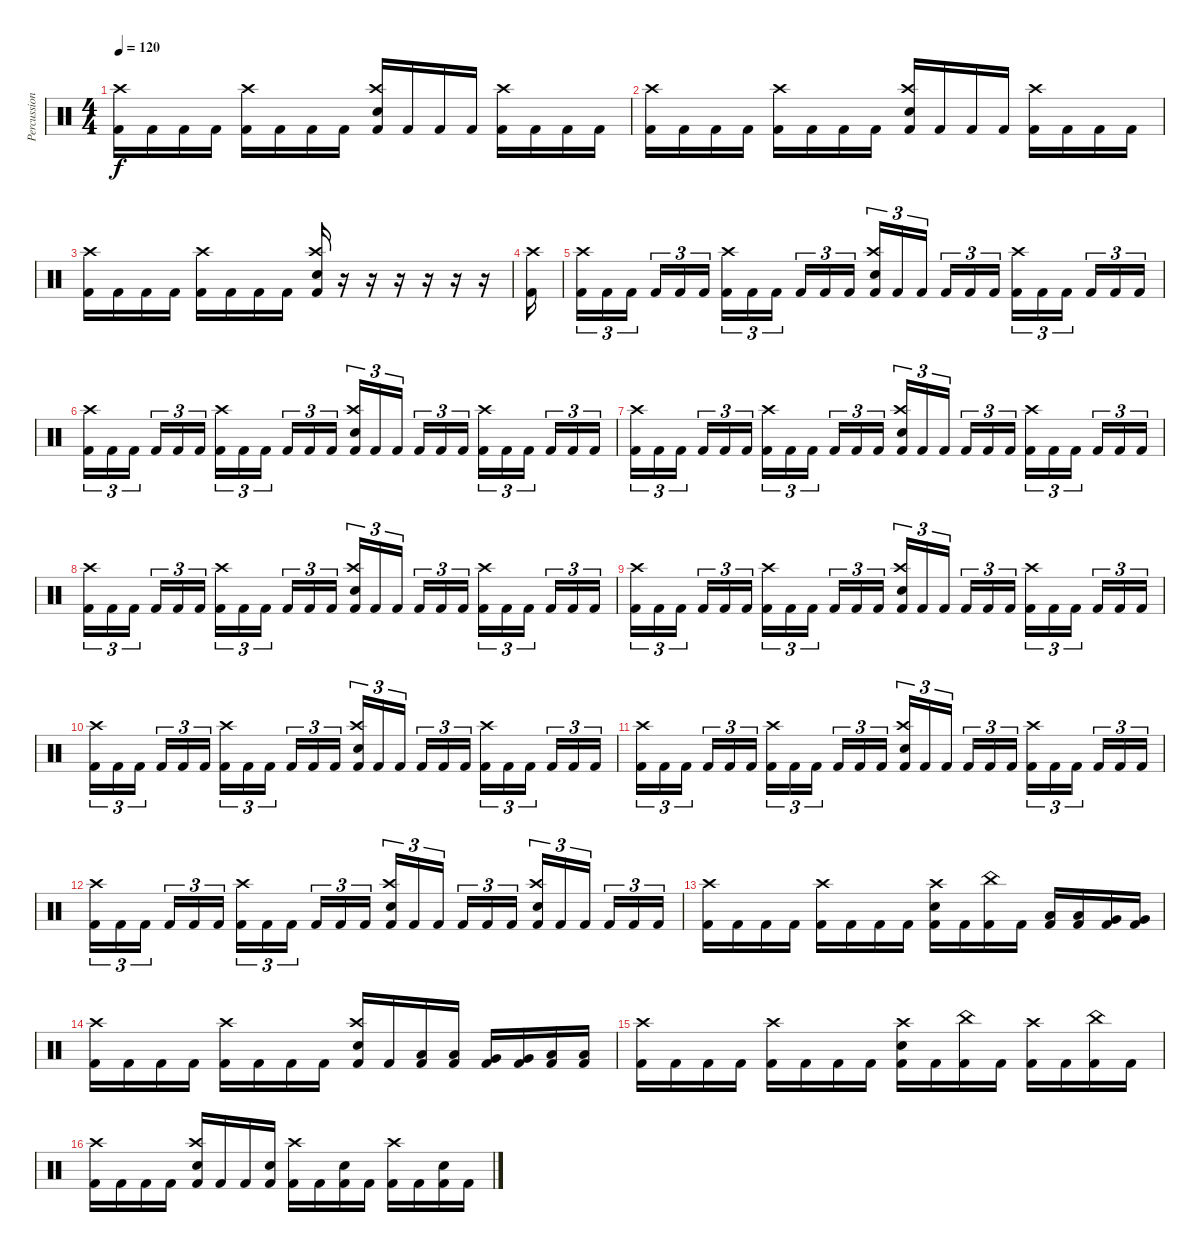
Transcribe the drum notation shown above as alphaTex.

\track ("Percussion" "Percussion") {instrument percussion}
\staff {score}
\articulation defaults
\ts (4 4)
\tempo 120
\clef neutral
\ks c
("Kick (hit) 2" "Crash high (hit)").16{dy f} "Kick (hit) 2".16 "Kick (hit) 2".16 "Kick (hit) 2".16 ("Kick (hit) 2" "Crash high (hit)").16 "Kick (hit) 2".16 "Kick (hit) 2".16 "Kick (hit) 2".16 ("Kick (hit) 2" "Electric Snare (hit)" "Crash high (hit)").16 "Kick (hit) 2".16 "Kick (hit) 2".16 "Kick (hit) 2".16 ("Kick (hit) 2" "Crash high (hit)").16 "Kick (hit) 2".16 "Kick (hit) 2".16 "Kick (hit) 2".16 |
("Kick (hit) 2" "Crash high (hit)").16 "Kick (hit) 2".16 "Kick (hit) 2".16 "Kick (hit) 2".16 ("Kick (hit) 2" "Crash high (hit)").16 "Kick (hit) 2".16 "Kick (hit) 2".16 "Kick (hit) 2".16 ("Kick (hit) 2" "Electric Snare (hit)" "Crash high (hit)").16 "Kick (hit) 2".16 "Kick (hit) 2".16 "Kick (hit) 2".16 ("Kick (hit) 2" "Crash high (hit)").16 "Kick (hit) 2".16 "Kick (hit) 2".16 "Kick (hit) 2".16 |
("Kick (hit) 2" "Crash high (hit)").16 "Kick (hit) 2".16 "Kick (hit) 2".16 "Kick (hit) 2".16 ("Kick (hit) 2" "Crash high (hit)").16 "Kick (hit) 2".16 "Kick (hit) 2".16 "Kick (hit) 2".16 ("Kick (hit) 2" "Electric Snare (hit)" "Crash high (hit)").16 r.16 r.16 r.16 r.16 r.16 r.16 |
("Kick (hit) 2" "Crash high (hit)").16 |
("Kick (hit) 2" "Crash high (hit)").16{tu (3 2)} "Kick (hit) 2".16{tu (3 2)} "Kick (hit) 2".16{tu (3 2)} "Kick (hit) 2".16{tu (3 2)} "Kick (hit) 2".16{tu (3 2)} "Kick (hit) 2".16{tu (3 2)} ("Kick (hit) 2" "Crash high (hit)").16{tu (3 2)} "Kick (hit) 2".16{tu (3 2)} "Kick (hit) 2".16{tu (3 2)} "Kick (hit) 2".16{tu (3 2)} "Kick (hit) 2".16{tu (3 2)} "Kick (hit) 2".16{tu (3 2)} ("Kick (hit) 2" "Electric Snare (hit)" "Crash high (hit)").16{tu (3 2)} "Kick (hit) 2".16{tu (3 2)} "Kick (hit) 2".16{tu (3 2)} "Kick (hit) 2".16{tu (3 2)} "Kick (hit) 2".16{tu (3 2)} "Kick (hit) 2".16{tu (3 2)} ("Kick (hit) 2" "Crash high (hit)").16{tu (3 2)} "Kick (hit) 2".16{tu (3 2)} "Kick (hit) 2".16{tu (3 2)} "Kick (hit) 2".16{tu (3 2)} "Kick (hit) 2".16{tu (3 2)} "Kick (hit) 2".16{tu (3 2)} |
("Kick (hit) 2" "Crash high (hit)").16{tu (3 2)} "Kick (hit) 2".16{tu (3 2)} "Kick (hit) 2".16{tu (3 2)} "Kick (hit) 2".16{tu (3 2)} "Kick (hit) 2".16{tu (3 2)} "Kick (hit) 2".16{tu (3 2)} ("Kick (hit) 2" "Crash high (hit)").16{tu (3 2)} "Kick (hit) 2".16{tu (3 2)} "Kick (hit) 2".16{tu (3 2)} "Kick (hit) 2".16{tu (3 2)} "Kick (hit) 2".16{tu (3 2)} "Kick (hit) 2".16{tu (3 2)} ("Kick (hit) 2" "Electric Snare (hit)" "Crash high (hit)").16{tu (3 2)} "Kick (hit) 2".16{tu (3 2)} "Kick (hit) 2".16{tu (3 2)} "Kick (hit) 2".16{tu (3 2)} "Kick (hit) 2".16{tu (3 2)} "Kick (hit) 2".16{tu (3 2)} ("Kick (hit) 2" "Crash high (hit)").16{tu (3 2)} "Kick (hit) 2".16{tu (3 2)} "Kick (hit) 2".16{tu (3 2)} "Kick (hit) 2".16{tu (3 2)} "Kick (hit) 2".16{tu (3 2)} "Kick (hit) 2".16{tu (3 2)} |
("Kick (hit) 2" "Crash high (hit)").16{tu (3 2)} "Kick (hit) 2".16{tu (3 2)} "Kick (hit) 2".16{tu (3 2)} "Kick (hit) 2".16{tu (3 2)} "Kick (hit) 2".16{tu (3 2)} "Kick (hit) 2".16{tu (3 2)} ("Kick (hit) 2" "Crash high (hit)").16{tu (3 2)} "Kick (hit) 2".16{tu (3 2)} "Kick (hit) 2".16{tu (3 2)} "Kick (hit) 2".16{tu (3 2)} "Kick (hit) 2".16{tu (3 2)} "Kick (hit) 2".16{tu (3 2)} ("Kick (hit) 2" "Electric Snare (hit)" "Crash high (hit)").16{tu (3 2)} "Kick (hit) 2".16{tu (3 2)} "Kick (hit) 2".16{tu (3 2)} "Kick (hit) 2".16{tu (3 2)} "Kick (hit) 2".16{tu (3 2)} "Kick (hit) 2".16{tu (3 2)} ("Kick (hit) 2" "Crash high (hit)").16{tu (3 2)} "Kick (hit) 2".16{tu (3 2)} "Kick (hit) 2".16{tu (3 2)} "Kick (hit) 2".16{tu (3 2)} "Kick (hit) 2".16{tu (3 2)} "Kick (hit) 2".16{tu (3 2)} |
("Kick (hit) 2" "Crash high (hit)").16{tu (3 2)} "Kick (hit) 2".16{tu (3 2)} "Kick (hit) 2".16{tu (3 2)} "Kick (hit) 2".16{tu (3 2)} "Kick (hit) 2".16{tu (3 2)} "Kick (hit) 2".16{tu (3 2)} ("Kick (hit) 2" "Crash high (hit)").16{tu (3 2)} "Kick (hit) 2".16{tu (3 2)} "Kick (hit) 2".16{tu (3 2)} "Kick (hit) 2".16{tu (3 2)} "Kick (hit) 2".16{tu (3 2)} "Kick (hit) 2".16{tu (3 2)} ("Kick (hit) 2" "Electric Snare (hit)" "Crash high (hit)").16{tu (3 2)} "Kick (hit) 2".16{tu (3 2)} "Kick (hit) 2".16{tu (3 2)} "Kick (hit) 2".16{tu (3 2)} "Kick (hit) 2".16{tu (3 2)} "Kick (hit) 2".16{tu (3 2)} ("Kick (hit) 2" "Crash high (hit)").16{tu (3 2)} "Kick (hit) 2".16{tu (3 2)} "Kick (hit) 2".16{tu (3 2)} "Kick (hit) 2".16{tu (3 2)} "Kick (hit) 2".16{tu (3 2)} "Kick (hit) 2".16{tu (3 2)} |
("Kick (hit) 2" "Crash high (hit)").16{tu (3 2)} "Kick (hit) 2".16{tu (3 2)} "Kick (hit) 2".16{tu (3 2)} "Kick (hit) 2".16{tu (3 2)} "Kick (hit) 2".16{tu (3 2)} "Kick (hit) 2".16{tu (3 2)} ("Kick (hit) 2" "Crash high (hit)").16{tu (3 2)} "Kick (hit) 2".16{tu (3 2)} "Kick (hit) 2".16{tu (3 2)} "Kick (hit) 2".16{tu (3 2)} "Kick (hit) 2".16{tu (3 2)} "Kick (hit) 2".16{tu (3 2)} ("Kick (hit) 2" "Electric Snare (hit)" "Crash high (hit)").16{tu (3 2)} "Kick (hit) 2".16{tu (3 2)} "Kick (hit) 2".16{tu (3 2)} "Kick (hit) 2".16{tu (3 2)} "Kick (hit) 2".16{tu (3 2)} "Kick (hit) 2".16{tu (3 2)} ("Kick (hit) 2" "Crash high (hit)").16{tu (3 2)} "Kick (hit) 2".16{tu (3 2)} "Kick (hit) 2".16{tu (3 2)} "Kick (hit) 2".16{tu (3 2)} "Kick (hit) 2".16{tu (3 2)} "Kick (hit) 2".16{tu (3 2)} |
("Kick (hit) 2" "Crash high (hit)").16{tu (3 2)} "Kick (hit) 2".16{tu (3 2)} "Kick (hit) 2".16{tu (3 2)} "Kick (hit) 2".16{tu (3 2)} "Kick (hit) 2".16{tu (3 2)} "Kick (hit) 2".16{tu (3 2)} ("Kick (hit) 2" "Crash high (hit)").16{tu (3 2)} "Kick (hit) 2".16{tu (3 2)} "Kick (hit) 2".16{tu (3 2)} "Kick (hit) 2".16{tu (3 2)} "Kick (hit) 2".16{tu (3 2)} "Kick (hit) 2".16{tu (3 2)} ("Kick (hit) 2" "Electric Snare (hit)" "Crash high (hit)").16{tu (3 2)} "Kick (hit) 2".16{tu (3 2)} "Kick (hit) 2".16{tu (3 2)} "Kick (hit) 2".16{tu (3 2)} "Kick (hit) 2".16{tu (3 2)} "Kick (hit) 2".16{tu (3 2)} ("Kick (hit) 2" "Crash high (hit)").16{tu (3 2)} "Kick (hit) 2".16{tu (3 2)} "Kick (hit) 2".16{tu (3 2)} "Kick (hit) 2".16{tu (3 2)} "Kick (hit) 2".16{tu (3 2)} "Kick (hit) 2".16{tu (3 2)} |
("Kick (hit) 2" "Crash high (hit)").16{tu (3 2)} "Kick (hit) 2".16{tu (3 2)} "Kick (hit) 2".16{tu (3 2)} "Kick (hit) 2".16{tu (3 2)} "Kick (hit) 2".16{tu (3 2)} "Kick (hit) 2".16{tu (3 2)} ("Kick (hit) 2" "Crash high (hit)").16{tu (3 2)} "Kick (hit) 2".16{tu (3 2)} "Kick (hit) 2".16{tu (3 2)} "Kick (hit) 2".16{tu (3 2)} "Kick (hit) 2".16{tu (3 2)} "Kick (hit) 2".16{tu (3 2)} ("Kick (hit) 2" "Electric Snare (hit)" "Crash high (hit)").16{tu (3 2)} "Kick (hit) 2".16{tu (3 2)} "Kick (hit) 2".16{tu (3 2)} "Kick (hit) 2".16{tu (3 2)} "Kick (hit) 2".16{tu (3 2)} "Kick (hit) 2".16{tu (3 2)} ("Kick (hit) 2" "Crash high (hit)").16{tu (3 2)} "Kick (hit) 2".16{tu (3 2)} "Kick (hit) 2".16{tu (3 2)} "Kick (hit) 2".16{tu (3 2)} "Kick (hit) 2".16{tu (3 2)} "Kick (hit) 2".16{tu (3 2)} |
("Kick (hit) 2" "Crash high (hit)").16{tu (3 2)} "Kick (hit) 2".16{tu (3 2)} "Kick (hit) 2".16{tu (3 2)} "Kick (hit) 2".16{tu (3 2)} "Kick (hit) 2".16{tu (3 2)} "Kick (hit) 2".16{tu (3 2)} ("Kick (hit) 2" "Crash high (hit)").16{tu (3 2)} "Kick (hit) 2".16{tu (3 2)} "Kick (hit) 2".16{tu (3 2)} "Kick (hit) 2".16{tu (3 2)} "Kick (hit) 2".16{tu (3 2)} "Kick (hit) 2".16{tu (3 2)} ("Kick (hit) 2" "Electric Snare (hit)" "Crash high (hit)").16{tu (3 2)} "Kick (hit) 2".16{tu (3 2)} "Kick (hit) 2".16{tu (3 2)} "Kick (hit) 2".16{tu (3 2)} "Kick (hit) 2".16{tu (3 2)} "Kick (hit) 2".16{tu (3 2)} ("Kick (hit) 2" "Electric Snare (hit)" "Crash high (hit)").16{tu (3 2)} "Kick (hit) 2".16{tu (3 2)} "Kick (hit) 2".16{tu (3 2)} "Kick (hit) 2".16{tu (3 2)} "Kick (hit) 2".16{tu (3 2)} "Kick (hit) 2".16{tu (3 2)} |
("Kick (hit) 2" "Crash high (hit)").16 "Kick (hit) 2".16 "Kick (hit) 2".16 "Kick (hit) 2".16 ("Kick (hit) 2" "Crash high (hit)").16 "Kick (hit) 2".16 "Kick (hit) 2".16 "Kick (hit) 2".16 ("Kick (hit) 2" "Crash high (hit)" "Electric Snare (hit)").16 "Kick (hit) 2".16 ("Kick (hit) 2" "China (hit)").16 "Kick (hit) 2".16 ("Kick (hit) 2" "Low Tom (hit)").16 ("Kick (hit) 2" "Low Tom (hit)").16 ("Kick (hit) 2" "Very Low Tom (hit)").16 ("Kick (hit) 2" "Very Low Tom (hit)").16 |
("Kick (hit) 2" "Crash high (hit)").16 "Kick (hit) 2".16 "Kick (hit) 2".16 "Kick (hit) 2".16 ("Kick (hit) 2" "Crash high (hit)").16 "Kick (hit) 2".16 "Kick (hit) 2".16 "Kick (hit) 2".16 ("Kick (hit) 2" "Crash high (hit)" "Electric Snare (hit)").16 "Kick (hit) 2".16 ("Kick (hit) 2" "Low Tom (hit)").16 ("Kick (hit) 2" "Low Tom (hit)").16 ("Kick (hit) 2" "Very Low Tom (hit)").16 ("Kick (hit) 2" "Very Low Tom (hit)").16 ("Kick (hit) 2" "Low Floor Tom (hit)").16 ("Kick (hit) 2" "Low Floor Tom (hit)").16 |
("Kick (hit) 2" "Crash high (hit)").16 "Kick (hit) 2".16 "Kick (hit) 2".16 "Kick (hit) 2".16 ("Kick (hit) 2" "Crash high (hit)").16 "Kick (hit) 2".16 "Kick (hit) 2".16 "Kick (hit) 2".16 ("Kick (hit) 2" "Crash high (hit)" "Electric Snare (hit)").16 "Kick (hit) 2".16 ("Kick (hit) 2" "China (hit)").16 "Kick (hit) 2".16 ("Kick (hit) 2" "Crash high (hit)").16 "Kick (hit) 2".16 ("Kick (hit) 2" "China (hit)").16 "Kick (hit) 2".16 |
("Kick (hit) 2" "Crash high (hit)").16 "Kick (hit) 2".16 "Kick (hit) 2".16 "Kick (hit) 2".16 ("Kick (hit) 2" "Crash high (hit)" "Electric Snare (hit)").16 "Kick (hit) 2".16 "Kick (hit) 2".16 ("Kick (hit) 2" "Electric Snare (hit)").16 ("Kick (hit) 2" "Crash high (hit)").16 "Kick (hit) 2".16 ("Kick (hit) 2" "Electric Snare (hit)").16 "Kick (hit) 2".16 ("Kick (hit) 2" "Crash high (hit)").16 "Kick (hit) 2".16 ("Kick (hit) 2" "Electric Snare (hit)").16 "Kick (hit) 2".16
